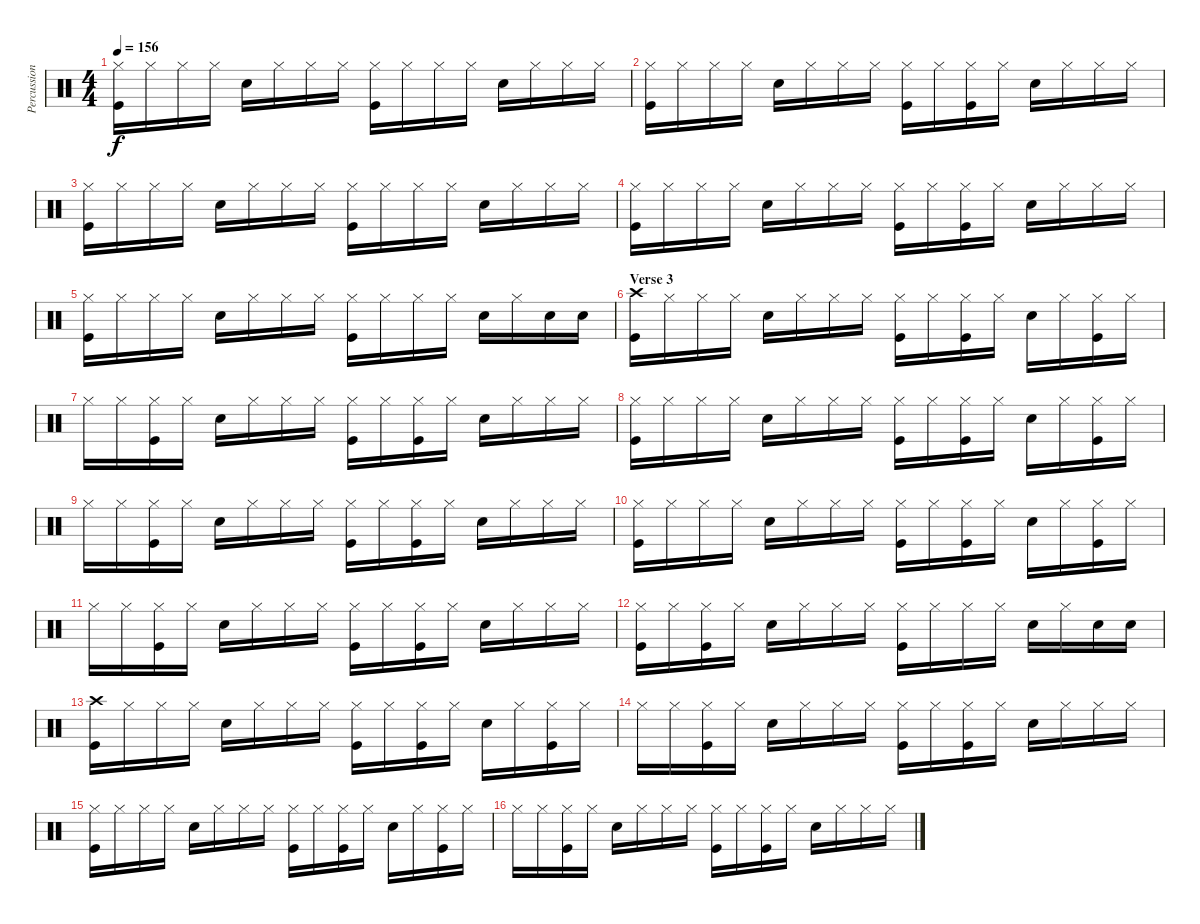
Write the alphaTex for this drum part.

\track ("Percussion" "Percussion") {instrument percussion}
\staff {score}
\articulation defaults
\ts (4 4)
\tempo 156
\clef neutral
\ks c
("Hi-Hat (closed)" "Kick (hit)").16{dy f} "Hi-Hat (closed)".16 "Hi-Hat (closed)".16 "Hi-Hat (closed)".16 "Snare (hit) 2".16 "Hi-Hat (closed)".16 "Hi-Hat (closed)".16 "Hi-Hat (closed)".16 ("Hi-Hat (closed)" "Kick (hit)").16 "Hi-Hat (closed)".16 "Hi-Hat (closed)".16 "Hi-Hat (closed)".16 "Snare (hit) 2".16 "Hi-Hat (closed)".16 "Hi-Hat (closed)".16 "Hi-Hat (closed)".16 |
("Hi-Hat (closed)" "Kick (hit)").16 "Hi-Hat (closed)".16 "Hi-Hat (closed)".16 "Hi-Hat (closed)".16 "Snare (hit) 2".16 "Hi-Hat (closed)".16 "Hi-Hat (closed)".16 "Hi-Hat (closed)".16 ("Hi-Hat (closed)" "Kick (hit)").16 "Hi-Hat (closed)".16 ("Hi-Hat (closed)" "Kick (hit)").16 "Hi-Hat (closed)".16 "Snare (hit) 2".16 "Hi-Hat (closed)".16 "Hi-Hat (closed)".16 "Hi-Hat (closed)".16 |
("Hi-Hat (closed)" "Kick (hit)").16 "Hi-Hat (closed)".16 "Hi-Hat (closed)".16 "Hi-Hat (closed)".16 "Snare (hit) 2".16 "Hi-Hat (closed)".16 "Hi-Hat (closed)".16 "Hi-Hat (closed)".16 ("Hi-Hat (closed)" "Kick (hit)").16 "Hi-Hat (closed)".16 "Hi-Hat (closed)".16 "Hi-Hat (closed)".16 "Snare (hit) 2".16 "Hi-Hat (closed)".16 "Hi-Hat (closed)".16 "Hi-Hat (closed)".16 |
("Hi-Hat (closed)" "Kick (hit)").16 "Hi-Hat (closed)".16 "Hi-Hat (closed)".16 "Hi-Hat (closed)".16 "Snare (hit) 2".16 "Hi-Hat (closed)".16 "Hi-Hat (closed)".16 "Hi-Hat (closed)".16 ("Hi-Hat (closed)" "Kick (hit)").16 "Hi-Hat (closed)".16 ("Hi-Hat (closed)" "Kick (hit)").16 "Hi-Hat (closed)".16 "Snare (hit) 2".16 "Hi-Hat (closed)".16 "Hi-Hat (closed)".16 "Hi-Hat (closed)".16 |
("Hi-Hat (closed)" "Kick (hit)").16 "Hi-Hat (closed)".16 "Hi-Hat (closed)".16 "Hi-Hat (closed)".16 "Snare (hit) 2".16 "Hi-Hat (closed)".16 "Hi-Hat (closed)".16 "Hi-Hat (closed)".16 ("Hi-Hat (closed)" "Kick (hit)").16 "Hi-Hat (closed)".16 "Hi-Hat (closed)".16 "Hi-Hat (closed)".16 "Snare (hit) 2".16 "Hi-Hat (closed)".16 "Snare (hit) 2".16 "Snare (hit) 2".16 |
\section ("" "Verse 3")
("Crash high (hit)" "Kick (hit)").16 "Hi-Hat (closed)".16 "Hi-Hat (closed)".16 "Hi-Hat (closed)".16 "Snare (hit) 2".16 "Hi-Hat (closed)".16 "Hi-Hat (closed)".16 "Hi-Hat (closed)".16 ("Hi-Hat (closed)" "Kick (hit)").16 "Hi-Hat (closed)".16 ("Hi-Hat (closed)" "Kick (hit)").16 "Hi-Hat (closed)".16 "Snare (hit) 2".16 "Hi-Hat (closed)".16 ("Hi-Hat (closed)" "Kick (hit)").16 "Hi-Hat (closed)".16 |
"Hi-Hat (closed)".16 "Hi-Hat (closed)".16 ("Hi-Hat (closed)" "Kick (hit)").16 "Hi-Hat (closed)".16 "Snare (hit) 2".16 "Hi-Hat (closed)".16 "Hi-Hat (closed)".16 "Hi-Hat (closed)".16 ("Hi-Hat (closed)" "Kick (hit)").16 "Hi-Hat (closed)".16 ("Hi-Hat (closed)" "Kick (hit)").16 "Hi-Hat (closed)".16 "Snare (hit) 2".16 "Hi-Hat (closed)".16 "Hi-Hat (closed)".16 "Hi-Hat (closed)".16 |
("Hi-Hat (closed)" "Kick (hit)").16 "Hi-Hat (closed)".16 "Hi-Hat (closed)".16 "Hi-Hat (closed)".16 "Snare (hit) 2".16 "Hi-Hat (closed)".16 "Hi-Hat (closed)".16 "Hi-Hat (closed)".16 ("Hi-Hat (closed)" "Kick (hit)").16 "Hi-Hat (closed)".16 ("Hi-Hat (closed)" "Kick (hit)").16 "Hi-Hat (closed)".16 "Snare (hit) 2".16 "Hi-Hat (closed)".16 ("Hi-Hat (closed)" "Kick (hit)").16 "Hi-Hat (closed)".16 |
"Hi-Hat (closed)".16 "Hi-Hat (closed)".16 ("Hi-Hat (closed)" "Kick (hit)").16 "Hi-Hat (closed)".16 "Snare (hit) 2".16 "Hi-Hat (closed)".16 "Hi-Hat (closed)".16 "Hi-Hat (closed)".16 ("Hi-Hat (closed)" "Kick (hit)").16 "Hi-Hat (closed)".16 ("Hi-Hat (closed)" "Kick (hit)").16 "Hi-Hat (closed)".16 "Snare (hit) 2".16 "Hi-Hat (closed)".16 "Hi-Hat (closed)".16 "Hi-Hat (closed)".16 |
("Hi-Hat (closed)" "Kick (hit)").16 "Hi-Hat (closed)".16 "Hi-Hat (closed)".16 "Hi-Hat (closed)".16 "Snare (hit) 2".16 "Hi-Hat (closed)".16 "Hi-Hat (closed)".16 "Hi-Hat (closed)".16 ("Hi-Hat (closed)" "Kick (hit)").16 "Hi-Hat (closed)".16 ("Hi-Hat (closed)" "Kick (hit)").16 "Hi-Hat (closed)".16 "Snare (hit) 2".16 "Hi-Hat (closed)".16 ("Hi-Hat (closed)" "Kick (hit)").16 "Hi-Hat (closed)".16 |
"Hi-Hat (closed)".16 "Hi-Hat (closed)".16 ("Hi-Hat (closed)" "Kick (hit)").16 "Hi-Hat (closed)".16 "Snare (hit) 2".16 "Hi-Hat (closed)".16 "Hi-Hat (closed)".16 "Hi-Hat (closed)".16 ("Hi-Hat (closed)" "Kick (hit)").16 "Hi-Hat (closed)".16 ("Hi-Hat (closed)" "Kick (hit)").16 "Hi-Hat (closed)".16 "Snare (hit) 2".16 "Hi-Hat (closed)".16 "Hi-Hat (closed)".16 "Hi-Hat (closed)".16 |
("Hi-Hat (closed)" "Kick (hit)").16 "Hi-Hat (closed)".16 ("Hi-Hat (closed)" "Kick (hit)").16 "Hi-Hat (closed)".16 "Snare (hit) 2".16 "Hi-Hat (closed)".16 "Hi-Hat (closed)".16 "Hi-Hat (closed)".16 ("Hi-Hat (closed)" "Kick (hit)").16 "Hi-Hat (closed)".16 "Hi-Hat (closed)".16 "Hi-Hat (closed)".16 "Snare (hit) 2".16 "Hi-Hat (closed)".16 "Snare (hit) 2".16 "Snare (hit) 2".16 |
("Crash high (hit)" "Kick (hit)").16 "Hi-Hat (closed)".16 "Hi-Hat (closed)".16 "Hi-Hat (closed)".16 "Snare (hit) 2".16 "Hi-Hat (closed)".16 "Hi-Hat (closed)".16 "Hi-Hat (closed)".16 ("Hi-Hat (closed)" "Kick (hit)").16 "Hi-Hat (closed)".16 ("Hi-Hat (closed)" "Kick (hit)").16 "Hi-Hat (closed)".16 "Snare (hit) 2".16 "Hi-Hat (closed)".16 ("Hi-Hat (closed)" "Kick (hit)").16 "Hi-Hat (closed)".16 |
"Hi-Hat (closed)".16 "Hi-Hat (closed)".16 ("Hi-Hat (closed)" "Kick (hit)").16 "Hi-Hat (closed)".16 "Snare (hit) 2".16 "Hi-Hat (closed)".16 "Hi-Hat (closed)".16 "Hi-Hat (closed)".16 ("Hi-Hat (closed)" "Kick (hit)").16 "Hi-Hat (closed)".16 ("Hi-Hat (closed)" "Kick (hit)").16 "Hi-Hat (closed)".16 "Snare (hit) 2".16 "Hi-Hat (closed)".16 "Hi-Hat (closed)".16 "Hi-Hat (closed)".16 |
("Hi-Hat (closed)" "Kick (hit)").16 "Hi-Hat (closed)".16 "Hi-Hat (closed)".16 "Hi-Hat (closed)".16 "Snare (hit) 2".16 "Hi-Hat (closed)".16 "Hi-Hat (closed)".16 "Hi-Hat (closed)".16 ("Hi-Hat (closed)" "Kick (hit)").16 "Hi-Hat (closed)".16 ("Hi-Hat (closed)" "Kick (hit)").16 "Hi-Hat (closed)".16 "Snare (hit) 2".16 "Hi-Hat (closed)".16 ("Hi-Hat (closed)" "Kick (hit)").16 "Hi-Hat (closed)".16 |
"Hi-Hat (closed)".16 "Hi-Hat (closed)".16 ("Hi-Hat (closed)" "Kick (hit)").16 "Hi-Hat (closed)".16 "Snare (hit) 2".16 "Hi-Hat (closed)".16 "Hi-Hat (closed)".16 "Hi-Hat (closed)".16 ("Hi-Hat (closed)" "Kick (hit)").16 "Hi-Hat (closed)".16 ("Hi-Hat (closed)" "Kick (hit)").16 "Hi-Hat (closed)".16 "Snare (hit) 2".16 "Hi-Hat (closed)".16 "Hi-Hat (closed)".16 "Hi-Hat (closed)".16
